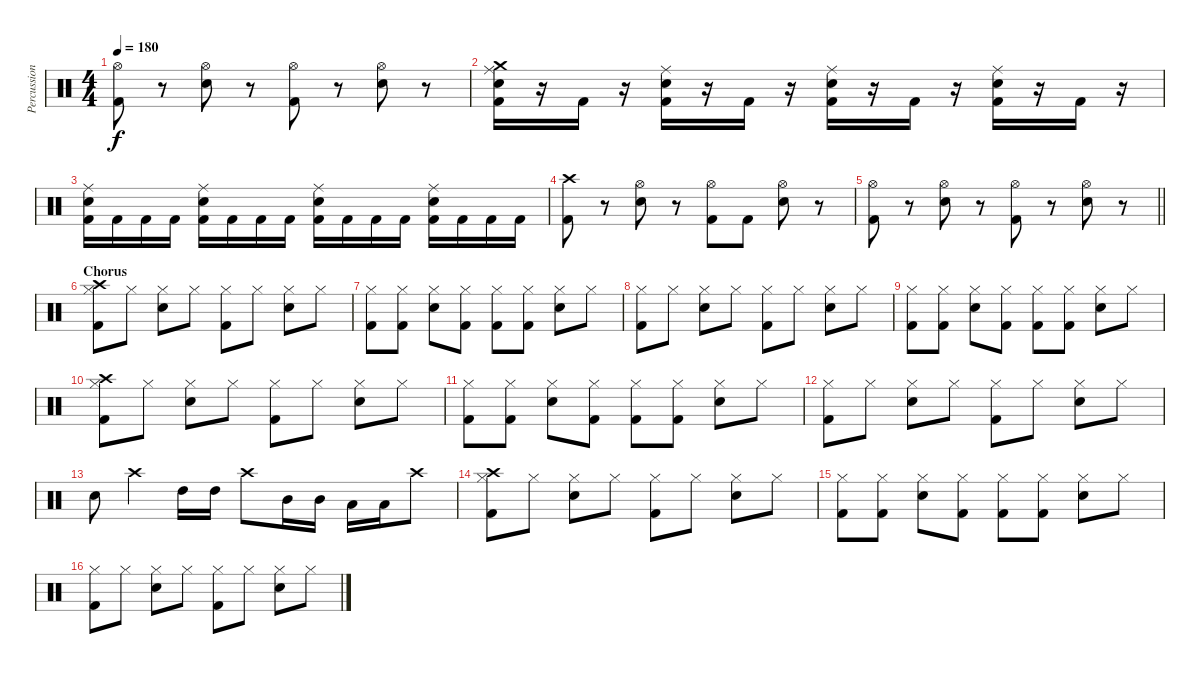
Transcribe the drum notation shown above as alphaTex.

\track ("Percussion" "Percussion") {instrument percussion}
\staff {score}
\articulation defaults
\ts (4 4)
\tempo 180
\clef neutral
\ks c
("Hi-Hat (open)" "Kick (hit) 2").8{dy f} r.8 ("Hi-Hat (open)" "Snare (hit) 2").8 r.8 ("Hi-Hat (open)" "Kick (hit) 2").8 r.8 ("Hi-Hat (open)" "Snare (hit) 2").8 r.8 |
("Crash medium (hit)" "Ride (middle)" "Snare (hit) 2" "Kick (hit) 2").16 r.16 "Kick (hit) 2".16 r.16 ("Ride (middle)" "Snare (hit) 2" "Kick (hit) 2").16 r.16 "Kick (hit) 2".16 r.16 ("Ride (middle)" "Snare (hit) 2" "Kick (hit) 2").16 r.16 "Kick (hit) 2".16 r.16 ("Ride (middle)" "Snare (hit) 2" "Kick (hit) 2").16 r.16 "Kick (hit) 2".16 r.16 |
("Ride (middle)" "Snare (hit) 2" "Kick (hit) 2").16 "Kick (hit) 2".16 "Kick (hit) 2".16 "Kick (hit) 2".16 ("Ride (middle)" "Snare (hit) 2" "Kick (hit) 2").16 "Kick (hit) 2".16 "Kick (hit) 2".16 "Kick (hit) 2".16 ("Ride (middle)" "Snare (hit) 2" "Kick (hit) 2").16 "Kick (hit) 2".16 "Kick (hit) 2".16 "Kick (hit) 2".16 ("Ride (middle)" "Snare (hit) 2" "Kick (hit) 2").16 "Kick (hit) 2".16 "Kick (hit) 2".16 "Kick (hit) 2".16 |
("Crash high (hit)" "Kick (hit) 2").8 r.8 ("Hi-Hat (open)" "Snare (hit) 2").8 r.8 ("Hi-Hat (open)" "Kick (hit) 2").8 "Kick (hit) 2".8 ("Hi-Hat (open)" "Snare (hit) 2").8 r.8 |
\barLineRight lightlight
("Hi-Hat (open)" "Kick (hit) 2").8 r.8 ("Hi-Hat (open)" "Snare (hit) 2").8 r.8 ("Hi-Hat (open)" "Kick (hit) 2").8 r.8 ("Hi-Hat (open)" "Snare (hit) 2").8 r.8 |
\section ("" "Chorus")
("Crash high (hit)" "Hi-Hat (closed)" "Kick (hit) 2").8 "Hi-Hat (closed)".8 ("Hi-Hat (closed)" "Snare (hit) 2").8 "Hi-Hat (closed)".8 ("Hi-Hat (closed)" "Kick (hit) 2").8 "Hi-Hat (closed)".8 ("Hi-Hat (closed)" "Snare (hit) 2").8 "Hi-Hat (closed)".8 |
("Hi-Hat (closed)" "Kick (hit) 2").8 ("Hi-Hat (closed)" "Kick (hit) 2").8 ("Hi-Hat (closed)" "Snare (hit) 2").8 ("Hi-Hat (closed)" "Kick (hit) 2").8 ("Hi-Hat (closed)" "Kick (hit) 2").8 ("Hi-Hat (closed)" "Kick (hit) 2").8 ("Hi-Hat (closed)" "Snare (hit) 2").8 "Hi-Hat (closed)".8 |
("Hi-Hat (closed)" "Kick (hit) 2").8 "Hi-Hat (closed)".8 ("Hi-Hat (closed)" "Snare (hit) 2").8 "Hi-Hat (closed)".8 ("Hi-Hat (closed)" "Kick (hit) 2").8 "Hi-Hat (closed)".8 ("Hi-Hat (closed)" "Snare (hit) 2").8 "Hi-Hat (closed)".8 |
("Hi-Hat (closed)" "Kick (hit) 2").8 ("Hi-Hat (closed)" "Kick (hit) 2").8 ("Hi-Hat (closed)" "Snare (hit) 2").8 ("Hi-Hat (closed)" "Kick (hit) 2").8 ("Hi-Hat (closed)" "Kick (hit) 2").8 ("Hi-Hat (closed)" "Kick (hit) 2").8 ("Hi-Hat (closed)" "Snare (hit) 2").8 "Hi-Hat (closed)".8 |
("Crash high (hit)" "Hi-Hat (closed)" "Kick (hit) 2").8 "Hi-Hat (closed)".8 ("Hi-Hat (closed)" "Snare (hit) 2").8 "Hi-Hat (closed)".8 ("Hi-Hat (closed)" "Kick (hit) 2").8 "Hi-Hat (closed)".8 ("Hi-Hat (closed)" "Snare (hit) 2").8 "Hi-Hat (closed)".8 |
("Hi-Hat (closed)" "Kick (hit) 2").8 ("Hi-Hat (closed)" "Kick (hit) 2").8 ("Hi-Hat (closed)" "Snare (hit) 2").8 ("Hi-Hat (closed)" "Kick (hit) 2").8 ("Hi-Hat (closed)" "Kick (hit) 2").8 ("Hi-Hat (closed)" "Kick (hit) 2").8 ("Hi-Hat (closed)" "Snare (hit) 2").8 "Hi-Hat (closed)".8 |
("Hi-Hat (closed)" "Kick (hit) 2").8 "Hi-Hat (closed)".8 ("Hi-Hat (closed)" "Snare (hit) 2").8 "Hi-Hat (closed)".8 ("Hi-Hat (closed)" "Kick (hit) 2").8 "Hi-Hat (closed)".8 ("Hi-Hat (closed)" "Snare (hit) 2").8 "Hi-Hat (closed)".8 |
"Snare (hit) 2".8 "Crash high (hit)".4 "High Tom (hit)".16 "High Tom (hit)".16 "Crash high (hit)".8 "Mid Tom (hit)".16 "Mid Tom (hit)".16 "Low Tom (hit)".16 "Low Tom (hit)".16 "Crash high (hit)".8 |
("Crash high (hit)" "Hi-Hat (closed)" "Kick (hit) 2").8 "Hi-Hat (closed)".8 ("Hi-Hat (closed)" "Snare (hit) 2").8 "Hi-Hat (closed)".8 ("Hi-Hat (closed)" "Kick (hit) 2").8 "Hi-Hat (closed)".8 ("Hi-Hat (closed)" "Snare (hit) 2").8 "Hi-Hat (closed)".8 |
("Hi-Hat (closed)" "Kick (hit) 2").8 ("Hi-Hat (closed)" "Kick (hit) 2").8 ("Hi-Hat (closed)" "Snare (hit) 2").8 ("Hi-Hat (closed)" "Kick (hit) 2").8 ("Hi-Hat (closed)" "Kick (hit) 2").8 ("Hi-Hat (closed)" "Kick (hit) 2").8 ("Hi-Hat (closed)" "Snare (hit) 2").8 "Hi-Hat (closed)".8 |
("Hi-Hat (closed)" "Kick (hit) 2").8 "Hi-Hat (closed)".8 ("Hi-Hat (closed)" "Snare (hit) 2").8 "Hi-Hat (closed)".8 ("Hi-Hat (closed)" "Kick (hit) 2").8 "Hi-Hat (closed)".8 ("Hi-Hat (closed)" "Snare (hit) 2").8 "Hi-Hat (closed)".8
